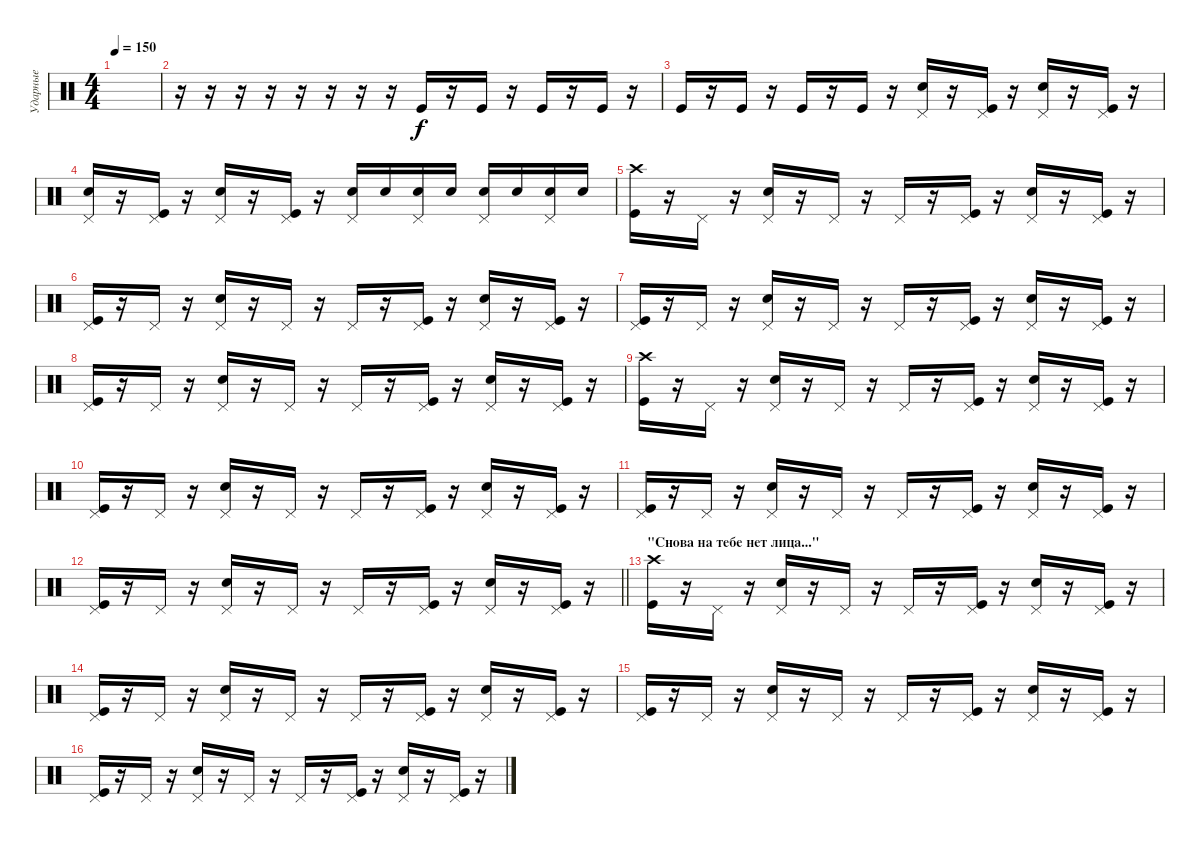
\track ("Ударные" "Ударные") {instrument percussion}
\staff {score}
\articulation defaults
\ts (4 4)
\tempo 150
\clef neutral
\ks c
|
r.16 r.16 r.16 r.16 r.16 r.16 r.16 r.16 "Kick (hit)".16 r.16 "Kick (hit)".16 r.16 "Kick (hit)".16 r.16 "Kick (hit)".16 r.16 |
"Kick (hit)".16 r.16 "Kick (hit)".16 r.16 "Kick (hit)".16 r.16 "Kick (hit)".16 r.16 ("Pedal Hi-Hat (hit)" "Snare (hit) 2").16 r.16 ("Pedal Hi-Hat (hit)" "Kick (hit)").16 r.16 ("Pedal Hi-Hat (hit)" "Snare (hit) 2").16 r.16 ("Pedal Hi-Hat (hit)" "Kick (hit)").16 r.16 |
("Pedal Hi-Hat (hit)" "Snare (hit) 2").16 r.16 ("Pedal Hi-Hat (hit)" "Kick (hit)").16 r.16 ("Pedal Hi-Hat (hit)" "Snare (hit) 2").16 r.16 ("Pedal Hi-Hat (hit)" "Kick (hit)").16 r.16 ("Pedal Hi-Hat (hit)" "Snare (hit) 2").16 "Snare (hit) 2".16 ("Pedal Hi-Hat (hit)" "Snare (hit) 2").16 "Snare (hit) 2".16 ("Pedal Hi-Hat (hit)" "Snare (hit) 2").16 "Snare (hit) 2".16 ("Pedal Hi-Hat (hit)" "Snare (hit) 2").16 "Snare (hit) 2".16 |
("Crash high (hit)" "Kick (hit)").16 r.16 "Pedal Hi-Hat (hit)".16 r.16 ("Pedal Hi-Hat (hit)" "Snare (hit) 2").16 r.16 "Pedal Hi-Hat (hit)".16 r.16 "Pedal Hi-Hat (hit)".16 r.16 ("Pedal Hi-Hat (hit)" "Kick (hit)").16 r.16 ("Pedal Hi-Hat (hit)" "Snare (hit) 2").16 r.16 ("Pedal Hi-Hat (hit)" "Kick (hit)").16 r.16 |
("Pedal Hi-Hat (hit)" "Kick (hit)").16 r.16 "Pedal Hi-Hat (hit)".16 r.16 ("Pedal Hi-Hat (hit)" "Snare (hit) 2").16 r.16 "Pedal Hi-Hat (hit)".16 r.16 "Pedal Hi-Hat (hit)".16 r.16 ("Pedal Hi-Hat (hit)" "Kick (hit)").16 r.16 ("Pedal Hi-Hat (hit)" "Snare (hit) 2").16 r.16 ("Pedal Hi-Hat (hit)" "Kick (hit)").16 r.16 |
("Pedal Hi-Hat (hit)" "Kick (hit)").16 r.16 "Pedal Hi-Hat (hit)".16 r.16 ("Pedal Hi-Hat (hit)" "Snare (hit) 2").16 r.16 "Pedal Hi-Hat (hit)".16 r.16 "Pedal Hi-Hat (hit)".16 r.16 ("Pedal Hi-Hat (hit)" "Kick (hit)").16 r.16 ("Pedal Hi-Hat (hit)" "Snare (hit) 2").16 r.16 ("Pedal Hi-Hat (hit)" "Kick (hit)").16 r.16 |
("Pedal Hi-Hat (hit)" "Kick (hit)").16 r.16 "Pedal Hi-Hat (hit)".16 r.16 ("Pedal Hi-Hat (hit)" "Snare (hit) 2").16 r.16 "Pedal Hi-Hat (hit)".16 r.16 "Pedal Hi-Hat (hit)".16 r.16 ("Pedal Hi-Hat (hit)" "Kick (hit)").16 r.16 ("Pedal Hi-Hat (hit)" "Snare (hit) 2").16 r.16 ("Pedal Hi-Hat (hit)" "Kick (hit)").16 r.16 |
("Crash high (hit)" "Kick (hit)").16 r.16 "Pedal Hi-Hat (hit)".16 r.16 ("Pedal Hi-Hat (hit)" "Snare (hit) 2").16 r.16 "Pedal Hi-Hat (hit)".16 r.16 "Pedal Hi-Hat (hit)".16 r.16 ("Pedal Hi-Hat (hit)" "Kick (hit)").16 r.16 ("Pedal Hi-Hat (hit)" "Snare (hit) 2").16 r.16 ("Pedal Hi-Hat (hit)" "Kick (hit)").16 r.16 |
("Pedal Hi-Hat (hit)" "Kick (hit)").16 r.16 "Pedal Hi-Hat (hit)".16 r.16 ("Pedal Hi-Hat (hit)" "Snare (hit) 2").16 r.16 "Pedal Hi-Hat (hit)".16 r.16 "Pedal Hi-Hat (hit)".16 r.16 ("Pedal Hi-Hat (hit)" "Kick (hit)").16 r.16 ("Pedal Hi-Hat (hit)" "Snare (hit) 2").16 r.16 ("Pedal Hi-Hat (hit)" "Kick (hit)").16 r.16 |
("Pedal Hi-Hat (hit)" "Kick (hit)").16 r.16 "Pedal Hi-Hat (hit)".16 r.16 ("Pedal Hi-Hat (hit)" "Snare (hit) 2").16 r.16 "Pedal Hi-Hat (hit)".16 r.16 "Pedal Hi-Hat (hit)".16 r.16 ("Pedal Hi-Hat (hit)" "Kick (hit)").16 r.16 ("Pedal Hi-Hat (hit)" "Snare (hit) 2").16 r.16 ("Pedal Hi-Hat (hit)" "Kick (hit)").16 r.16 |
\barLineRight lightlight
("Pedal Hi-Hat (hit)" "Kick (hit)").16 r.16 "Pedal Hi-Hat (hit)".16 r.16 ("Pedal Hi-Hat (hit)" "Snare (hit) 2").16 r.16 "Pedal Hi-Hat (hit)".16 r.16 "Pedal Hi-Hat (hit)".16 r.16 ("Pedal Hi-Hat (hit)" "Kick (hit)").16 r.16 ("Pedal Hi-Hat (hit)" "Snare (hit) 2").16 r.16 ("Pedal Hi-Hat (hit)" "Kick (hit)").16 r.16 |
\section ("" "\"Снова на тебе нет лица...\"")
("Crash high (hit)" "Kick (hit)").16 r.16 "Pedal Hi-Hat (hit)".16 r.16 ("Pedal Hi-Hat (hit)" "Snare (hit) 2").16 r.16 "Pedal Hi-Hat (hit)".16 r.16 "Pedal Hi-Hat (hit)".16 r.16 ("Pedal Hi-Hat (hit)" "Kick (hit)").16 r.16 ("Pedal Hi-Hat (hit)" "Snare (hit) 2").16 r.16 ("Pedal Hi-Hat (hit)" "Kick (hit)").16 r.16 |
("Pedal Hi-Hat (hit)" "Kick (hit)").16 r.16 "Pedal Hi-Hat (hit)".16 r.16 ("Pedal Hi-Hat (hit)" "Snare (hit) 2").16 r.16 "Pedal Hi-Hat (hit)".16 r.16 "Pedal Hi-Hat (hit)".16 r.16 ("Pedal Hi-Hat (hit)" "Kick (hit)").16 r.16 ("Pedal Hi-Hat (hit)" "Snare (hit) 2").16 r.16 ("Pedal Hi-Hat (hit)" "Kick (hit)").16 r.16 |
("Pedal Hi-Hat (hit)" "Kick (hit)").16 r.16 "Pedal Hi-Hat (hit)".16 r.16 ("Pedal Hi-Hat (hit)" "Snare (hit) 2").16 r.16 "Pedal Hi-Hat (hit)".16 r.16 "Pedal Hi-Hat (hit)".16 r.16 ("Pedal Hi-Hat (hit)" "Kick (hit)").16 r.16 ("Pedal Hi-Hat (hit)" "Snare (hit) 2").16 r.16 ("Pedal Hi-Hat (hit)" "Kick (hit)").16 r.16 |
("Pedal Hi-Hat (hit)" "Kick (hit)").16 r.16 "Pedal Hi-Hat (hit)".16 r.16 ("Pedal Hi-Hat (hit)" "Snare (hit) 2").16 r.16 "Pedal Hi-Hat (hit)".16 r.16 "Pedal Hi-Hat (hit)".16 r.16 ("Pedal Hi-Hat (hit)" "Kick (hit)").16 r.16 ("Pedal Hi-Hat (hit)" "Snare (hit) 2").16 r.16 ("Pedal Hi-Hat (hit)" "Kick (hit)").16 r.16
